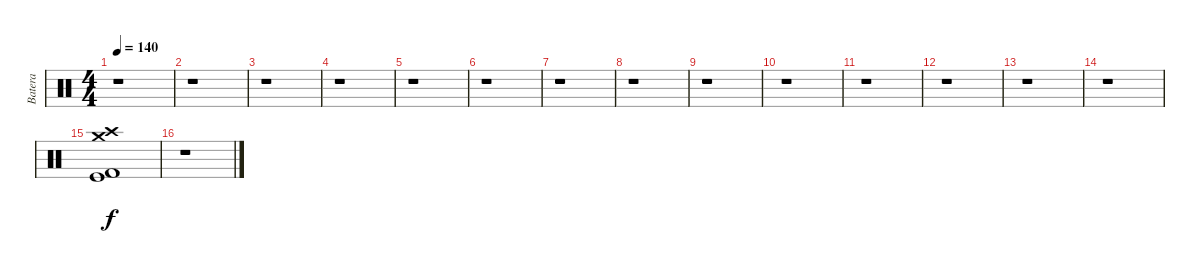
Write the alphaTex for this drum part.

\track ("Batera" "Batera") {instrument percussion}
\staff {score}
\articulation defaults
\ts (4 4)
\tempo 140
\clef neutral
\ks c
r.1{dy f} |
r.1 |
r.1 |
r.1 |
r.1 |
r.1 |
r.1 |
r.1 |
r.1 |
r.1 |
r.1 |
r.1 |
r.1 |
r.1 |
("Crash medium (hit)" "Crash high (hit)" "Kick (hit) 2" "Kick (hit)").1 |
r.1
